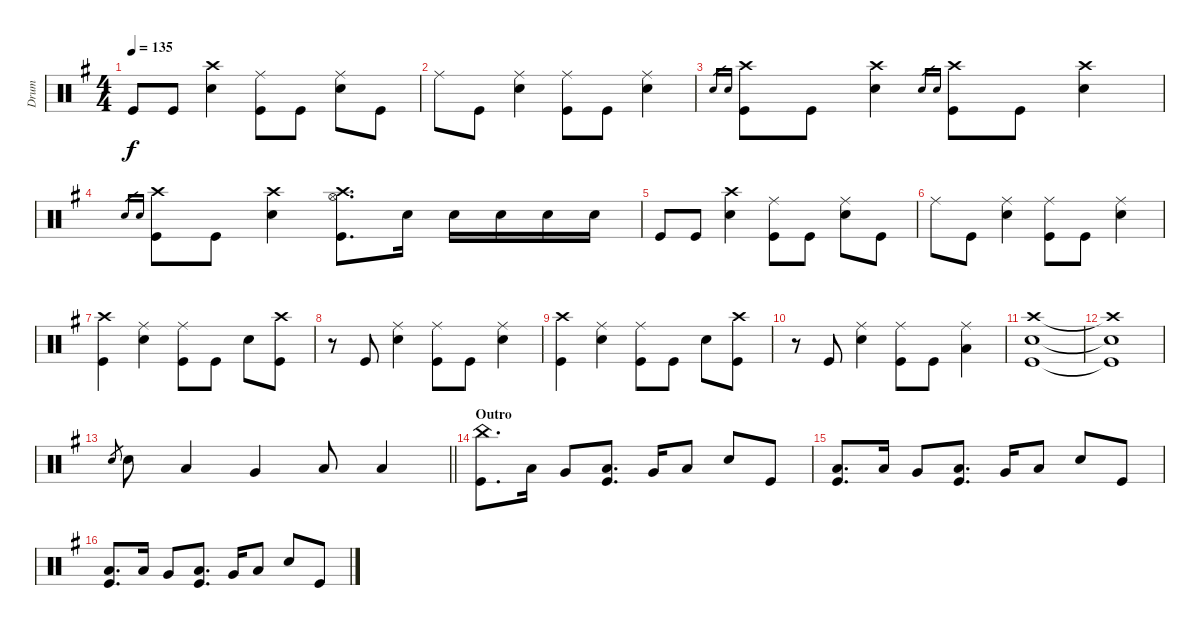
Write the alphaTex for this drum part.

\track ("Drum" "Drum") {instrument percussion}
\staff {score}
\articulation defaults
\ts (4 4)
\tempo 135
\clef neutral
\ks g "Kick (hit)".8{dy f} "Kick (hit)".8
("Crash high (hit)" "Snare (hit) 2").4 ("Ride (middle)" "Kick (hit)").8 "Kick (hit)".8 ("Snare (hit) 2" "Ride (middle)").8 "Kick (hit)".8 |
"Ride (middle)".8 "Kick (hit)".8 ("Snare (hit) 2" "Ride (middle)").4 ("Kick (hit)" "Ride (middle)").8 "Kick (hit)".8 ("Snare (hit) 2" "Ride (middle)").4 |
"Snare (hit) 2".16{gr} "Electric Snare (hit)".16{gr} ("Kick (hit)" "Crash high (hit)").8 "Kick (hit)".8 ("Snare (hit) 2" "Crash high (hit)").4 "Snare (hit) 2".16{gr} "Electric Snare (hit)".16{gr} ("Kick (hit)" "Crash high (hit)").8 "Kick (hit)".8 ("Snare (hit) 2" "Crash high (hit)").4 |
"Snare (hit) 2".16{gr} "Electric Snare (hit)".16{gr} ("Kick (hit)" "Crash high (hit)").8 "Kick (hit)".8 ("Snare (hit) 2" "Crash high (hit)").4 ("Hi-Hat (open)" "Crash high (hit)" "Kick (hit)").8{d} "Snare (hit) 2".16 "Snare (hit) 2".16 "Snare (hit) 2".16 "Snare (hit) 2".16 "Snare (hit) 2".16 |
"Kick (hit)".8 "Kick (hit)".8 ("Crash high (hit)" "Snare (hit) 2").4 ("Ride (middle)" "Kick (hit)").8 "Kick (hit)".8 ("Snare (hit) 2" "Ride (middle)").8 "Kick (hit)".8 |
"Ride (middle)".8 "Kick (hit)".8 ("Snare (hit) 2" "Ride (middle)").4 ("Kick (hit)" "Ride (middle)").8 "Kick (hit)".8 ("Snare (hit) 2" "Ride (middle)").4 |
("Kick (hit)" "Crash high (hit)").4 ("Snare (hit) 2" "Ride (middle)").4 ("Kick (hit)" "Ride (middle)").8 "Kick (hit)".8 "Snare (hit) 2".8 ("Crash high (hit)" "Kick (hit)").8 |
r.8 "Kick (hit)".8 ("Snare (hit) 2" "Ride (middle)").4 ("Kick (hit)" "Ride (middle)").8 "Kick (hit)".8 ("Ride (middle)" "Snare (hit) 2").4 |
("Kick (hit)" "Crash high (hit)").4 ("Snare (hit) 2" "Ride (middle)").4 ("Kick (hit)" "Ride (middle)").8 "Kick (hit)".8 "Snare (hit) 2".8 ("Crash high (hit)" "Kick (hit)").8 |
r.8 "Kick (hit)".8 ("Snare (hit) 2" "Ride (middle)").4 ("Kick (hit)" "Ride (middle)").8 "Kick (hit)".8 ("Ride (middle)" "Low Floor Tom (hit)").4 |
("Crash high (hit)" "Snare (hit) 2" "Kick (hit)").1 |
("Crash high (hit)"{t} "Snare (hit) 2"{t} "Kick (hit)"{t}).1 |
\barLineRight lightlight "Snare (hit) 2".8{gr} "Snare (hit) 2".8 "Low Tom (hit)".4 "Very Low Tom (hit)".4 "Low Floor Tom (hit)".8 "Low Floor Tom (hit)".4
|
\section ("" "Outro")
("China (hit)" "Kick (hit)").8{d} "Low Tom (hit)".16 "Very Low Tom (hit)".8 ("Low Tom (hit)" "Kick (hit)").8{d} "Very Low Tom (hit)".16 "Low Floor Tom (hit)".8 "Snare (hit) 2".8 "Kick (hit)".8 |
("Low Floor Tom (hit)" "Kick (hit)").8{d} "Low Tom (hit)".16 "Very Low Tom (hit)".8 ("Low Tom (hit)" "Kick (hit)").8{d} "Very Low Tom (hit)".16 "Low Floor Tom (hit)".8 "Snare (hit) 2".8 "Kick (hit)".8 |
("Low Floor Tom (hit)" "Kick (hit)").8{d} "Low Tom (hit)".16 "Very Low Tom (hit)".8 ("Low Tom (hit)" "Kick (hit)").8{d} "Very Low Tom (hit)".16 "Low Floor Tom (hit)".8 "Snare (hit) 2".8 "Kick (hit)".8
